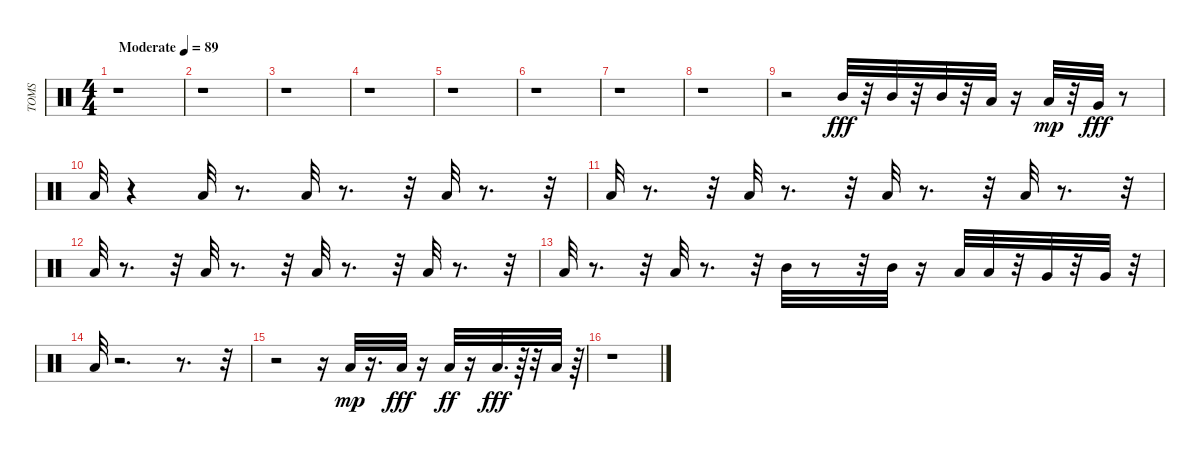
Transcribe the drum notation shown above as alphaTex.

\track ("TOMS" "TOMS") {instrument percussion}
\staff {score}
\articulation defaults
\ts (4 4)
\tempo (89 "Moderate")
\clef neutral
\ks c
r.1{dy fff} |
r.1 |
r.1 |
r.1 |
r.1 |
r.1 |
r.1 |
r.1 |
r.2 "Mid Tom (hit)".32 r.32 "Mid Tom (hit)".32 r.32 "Mid Tom (hit)".32 r.32 "Low Tom (hit)".32 r.16 "Low Tom (hit)".32{dy mp} r.32 "Very Low Tom (hit)".32{dy fff} r.8 |
"Low Floor Tom (hit)".32 r.4 "Low Floor Tom (hit)".32 r.8{d} "Low Floor Tom (hit)".32 r.8{d} r.32 "Low Floor Tom (hit)".32 r.8{d} r.32 |
"Low Floor Tom (hit)".32 r.8{d} r.32 "Low Floor Tom (hit)".32 r.8{d} r.32 "Low Floor Tom (hit)".32 r.8{d} r.32 "Low Floor Tom (hit)".32 r.8{d} r.32 |
"Low Floor Tom (hit)".32 r.8{d} r.32 "Low Floor Tom (hit)".32 r.8{d} r.32 "Low Floor Tom (hit)".32 r.8{d} r.32 "Low Floor Tom (hit)".32 r.8{d} r.32 |
"Low Floor Tom (hit)".32 r.8{d} r.32 "Low Floor Tom (hit)".32 r.8{d} r.32 "Mid Tom (hit)".32 r.8 r.32 "Mid Tom (hit)".32 r.16 "Low Tom (hit)".32 "Low Tom (hit)".32 r.32 "Very Low Tom (hit)".32 r.32 "Very Low Tom (hit)".32 r.32 |
"Low Floor Tom (hit)".32 r.2{d} r.8{d} r.32 |
r.2 r.16 "Low Tom (hit)".32{dy mp} r.16{d} "Low Tom (hit)".32{dy fff} r.16 "Low Tom (hit)".32{dy ff} r.16 "Low Tom (hit)".32{d dy fff} r.64 r.32 "Low Tom (hit)".32 r.64{tu (3 2)} |
r.1
